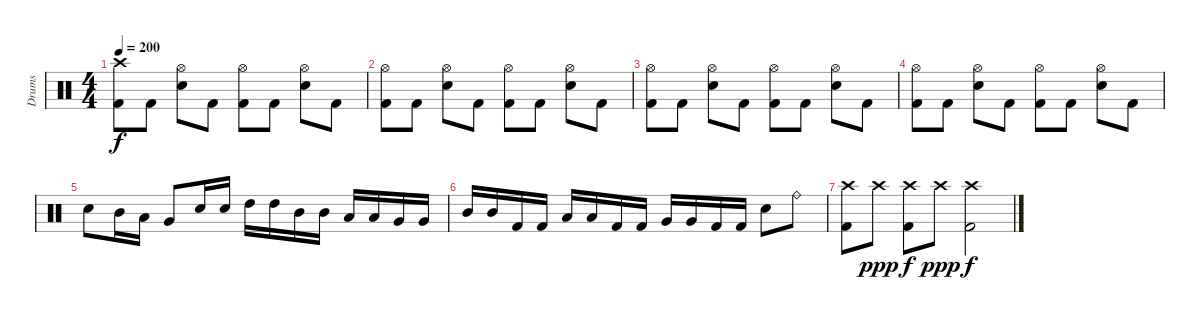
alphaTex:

\track ("Drums" "Drums") {instrument percussion}
\staff {score}
\articulation defaults
\ts (4 4)
\tempo 200
\clef neutral
\ks c
("Crash high (hit)" "Kick (hit) 2").8{dy f} "Kick (hit) 2".8 ("Hi-Hat (open)" "Electric Snare (hit)").8 "Kick (hit) 2".8 ("Hi-Hat (open)" "Kick (hit) 2").8 "Kick (hit) 2".8 ("Hi-Hat (open)" "Electric Snare (hit)").8 "Kick (hit) 2".8 |
("Hi-Hat (open)" "Kick (hit) 2").8 "Kick (hit) 2".8 ("Hi-Hat (open)" "Electric Snare (hit)").8 "Kick (hit) 2".8 ("Hi-Hat (open)" "Kick (hit) 2").8 "Kick (hit) 2".8 ("Hi-Hat (open)" "Electric Snare (hit)").8 "Kick (hit) 2".8 |
("Hi-Hat (open)" "Kick (hit) 2").8 "Kick (hit) 2".8 ("Hi-Hat (open)" "Electric Snare (hit)").8 "Kick (hit) 2".8 ("Hi-Hat (open)" "Kick (hit) 2").8 "Kick (hit) 2".8 ("Hi-Hat (open)" "Electric Snare (hit)").8 "Kick (hit) 2".8 |
("Hi-Hat (open)" "Kick (hit) 2").8 "Kick (hit) 2".8 ("Hi-Hat (open)" "Electric Snare (hit)").8 "Kick (hit) 2".8 ("Hi-Hat (open)" "Kick (hit) 2").8 "Kick (hit) 2".8 ("Hi-Hat (open)" "Electric Snare (hit)").8 "Kick (hit) 2".8 |
"Electric Snare (hit)".8 "Mid Tom (hit)".16 "Low Tom (hit)".16 "Very Low Tom (hit)".8 "Electric Snare (hit)".16 "Electric Snare (hit)".16 "High Tom (hit)".16 "High Tom (hit)".16 "Mid Tom (hit)".16 "Mid Tom (hit)".16 "Low Tom (hit)".16 "Low Tom (hit)".16 "Very Low Tom (hit)".16 "Very Low Tom (hit)".16 |
"Mid Tom (hit)".16 "Mid Tom (hit)".16 "Kick (hit) 2".16 "Kick (hit) 2".16 "Low Tom (hit)".16 "Low Tom (hit)".16 "Kick (hit) 2".16 "Kick (hit) 2".16 "Very Low Tom (hit)".16 "Very Low Tom (hit)".16 "Kick (hit) 2".16 "Kick (hit) 2".16 "Electric Snare (hit)".8 "Ride (bell)".8 |
("Crash high (hit)" "Kick (hit) 2").8 "Crash high (hit)".8{dy ppp} ("Crash high (hit)" "Kick (hit) 2").8{dy f} "Crash high (hit)".8{dy ppp} ("Crash high (hit)" "Kick (hit) 2").2{dy f}
